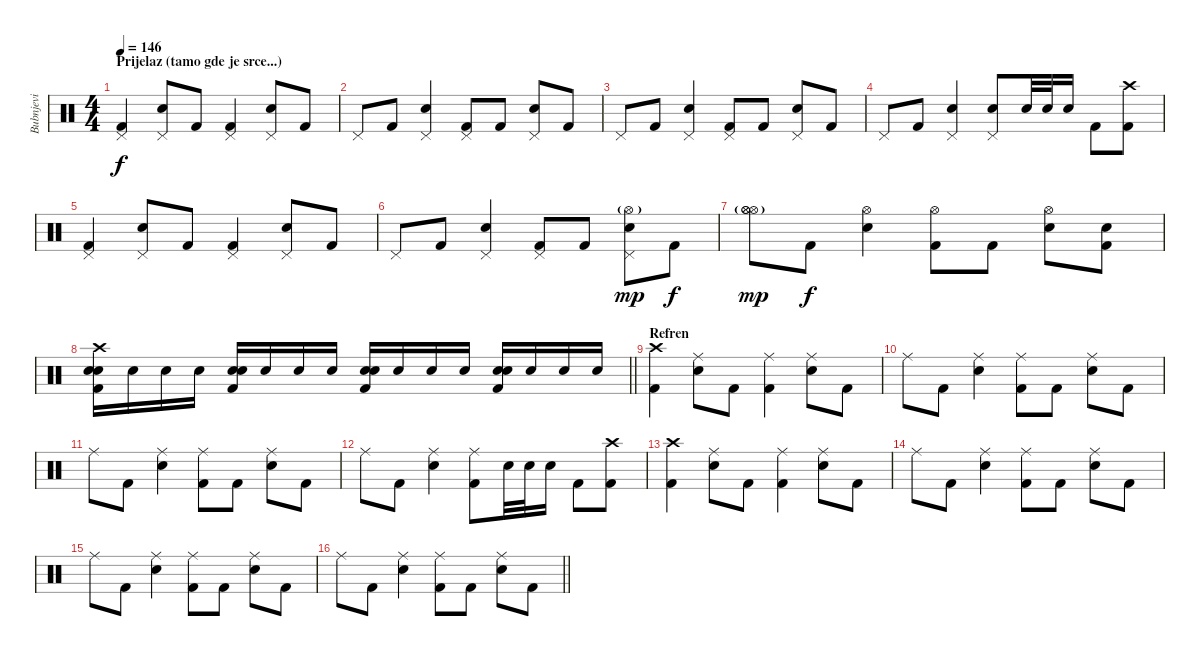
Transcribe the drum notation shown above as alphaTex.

\track ("Bubnjevi" "Bubnjevi") {instrument percussion}
\staff {score}
\articulation defaults
\ts (4 4)
\section ("" "Prijelaz (tamo gde je srce...)")
\tempo 146
\clef neutral
\ks c
("Pedal Hi-Hat (hit)" "Kick (hit) 2").4{dy f} ("Pedal Hi-Hat (hit)" "Electric Snare (hit)").8 "Kick (hit) 2".8 ("Pedal Hi-Hat (hit)" "Kick (hit) 2").4 ("Pedal Hi-Hat (hit)" "Electric Snare (hit)").8 "Kick (hit) 2".8 |
"Pedal Hi-Hat (hit)".8 "Kick (hit) 2".8 ("Pedal Hi-Hat (hit)" "Electric Snare (hit)").4 ("Pedal Hi-Hat (hit)" "Kick (hit) 2").8 "Kick (hit) 2".8 ("Pedal Hi-Hat (hit)" "Electric Snare (hit)").8 "Kick (hit) 2".8 |
"Pedal Hi-Hat (hit)".8 "Kick (hit) 2".8 ("Pedal Hi-Hat (hit)" "Electric Snare (hit)").4 ("Pedal Hi-Hat (hit)" "Kick (hit) 2").8 "Kick (hit) 2".8 ("Pedal Hi-Hat (hit)" "Electric Snare (hit)").8 "Kick (hit) 2".8 |
"Pedal Hi-Hat (hit)".8 "Kick (hit) 2".8 ("Pedal Hi-Hat (hit)" "Electric Snare (hit)").4 ("Pedal Hi-Hat (hit)" "Snare (hit) 2").8 "Snare (hit) 2".32 "Snare (hit) 2".32 "Snare (hit) 2".16 "Kick (hit) 2".8 ("Crash high (hit)" "Kick (hit) 2").8 |
("Pedal Hi-Hat (hit)" "Kick (hit) 2").4 ("Pedal Hi-Hat (hit)" "Electric Snare (hit)").8 "Kick (hit) 2".8 ("Pedal Hi-Hat (hit)" "Kick (hit) 2").4 ("Pedal Hi-Hat (hit)" "Electric Snare (hit)").8 "Kick (hit) 2".8 |
"Pedal Hi-Hat (hit)".8 "Kick (hit) 2".8 ("Pedal Hi-Hat (hit)" "Electric Snare (hit)").4 ("Pedal Hi-Hat (hit)" "Kick (hit) 2").8 "Kick (hit) 2".8 ("Hi-Hat (open)"{g} "Pedal Hi-Hat (hit)" "Electric Snare (hit)").8{dy mp} "Kick (hit) 2".8{dy f} |
("Hi-Hat (open)"{g} "Hi-Hat (open)"{g} "Hi-Hat (open)"{g}).8{dy mp} "Kick (hit) 2".8{dy f} ("Hi-Hat (open)" "Electric Snare (hit)").4 ("Hi-Hat (open)" "Kick (hit) 2").8 "Kick (hit) 2".8 ("Hi-Hat (open)" "Electric Snare (hit)").8 ("Electric Snare (hit)" "Kick (hit) 2").8 |
\barLineRight lightlight
("Crash high (hit)" "Snare (hit) 2" "Snare (hit) 2" "Kick (hit) 2").16 "Snare (hit) 2".16 "Snare (hit) 2".16 "Snare (hit) 2".16 ("Snare (hit) 2" "Snare (hit) 2" "Kick (hit) 2").16 "Snare (hit) 2".16 "Snare (hit) 2".16 "Snare (hit) 2".16 ("Snare (hit) 2" "Snare (hit) 2" "Kick (hit) 2").16 "Snare (hit) 2".16 "Snare (hit) 2".16 "Snare (hit) 2".16 ("Snare (hit) 2" "Snare (hit) 2" "Kick (hit) 2").16 "Snare (hit) 2".16 "Snare (hit) 2".16 "Snare (hit) 2".16 |
\section ("" "Refren")
("Crash high (hit)" "Kick (hit) 2").4 ("Ride (middle)" "Electric Snare (hit)").8 "Kick (hit) 2".8 ("Ride (middle)" "Kick (hit) 2").4 ("Ride (middle)" "Electric Snare (hit)").8 "Kick (hit) 2".8 |
"Ride (middle)".8 "Kick (hit) 2".8 ("Ride (middle)" "Electric Snare (hit)").4 ("Ride (middle)" "Kick (hit) 2").8 "Kick (hit) 2".8 ("Ride (middle)" "Electric Snare (hit)").8 "Kick (hit) 2".8 |
"Ride (middle)".8 "Kick (hit) 2".8 ("Ride (middle)" "Electric Snare (hit)").4 ("Ride (middle)" "Kick (hit) 2").8 "Kick (hit) 2".8 ("Ride (middle)" "Electric Snare (hit)").8 "Kick (hit) 2".8 |
"Ride (middle)".8 "Kick (hit) 2".8 ("Ride (middle)" "Electric Snare (hit)").4 ("Ride (middle)" "Kick (hit) 2").8 "Snare (hit) 2".32 "Snare (hit) 2".32 "Snare (hit) 2".16 "Kick (hit) 2".8 ("Crash high (hit)" "Kick (hit) 2").8 |
("Crash high (hit)" "Kick (hit) 2").4 ("Ride (middle)" "Electric Snare (hit)").8 "Kick (hit) 2".8 ("Ride (middle)" "Kick (hit) 2").4 ("Ride (middle)" "Electric Snare (hit)").8 "Kick (hit) 2".8 |
"Ride (middle)".8 "Kick (hit) 2".8 ("Ride (middle)" "Electric Snare (hit)").4 ("Ride (middle)" "Kick (hit) 2").8 "Kick (hit) 2".8 ("Ride (middle)" "Electric Snare (hit)").8 "Kick (hit) 2".8 |
"Ride (middle)".8 "Kick (hit) 2".8 ("Ride (middle)" "Electric Snare (hit)").4 ("Ride (middle)" "Kick (hit) 2").8 "Kick (hit) 2".8 ("Ride (middle)" "Electric Snare (hit)").8 "Kick (hit) 2".8 |
\barLineRight lightlight "Ride (middle)".8 "Kick (hit) 2".8
("Ride (middle)" "Electric Snare (hit)").4 ("Ride (middle)" "Kick (hit) 2").8 "Kick (hit) 2".8 ("Ride (middle)" "Electric Snare (hit)").8 "Kick (hit) 2".8
